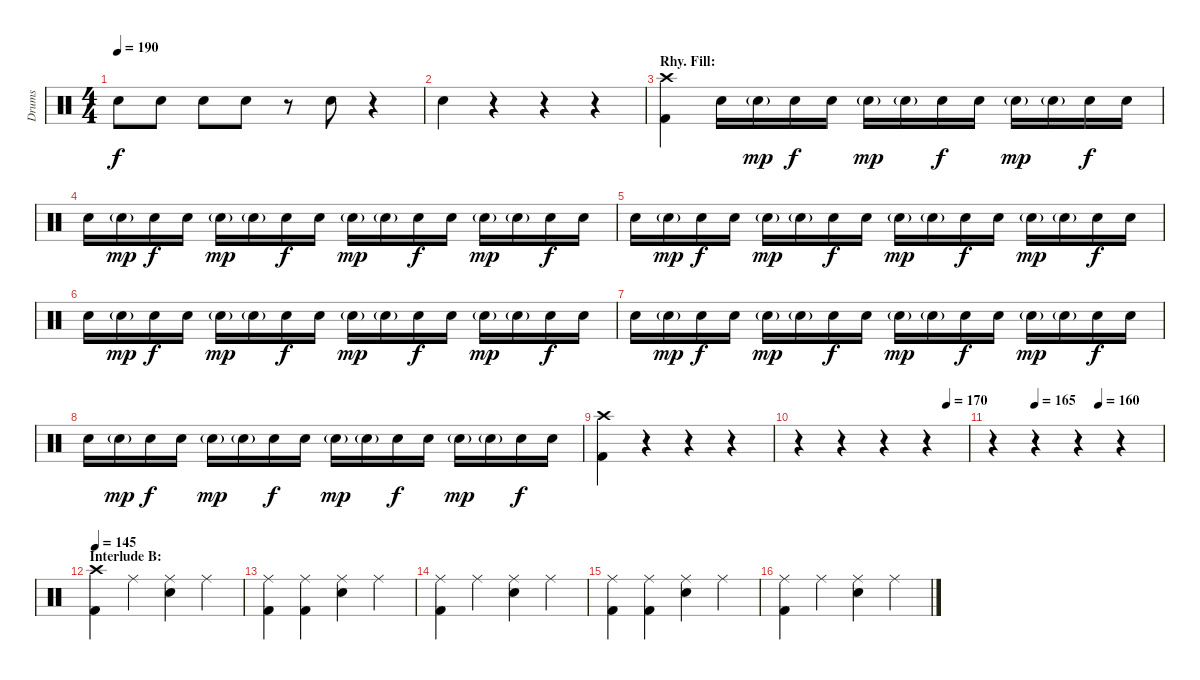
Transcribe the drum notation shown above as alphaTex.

\track ("Drums" "Drums") {instrument percussion}
\staff {score}
\articulation defaults
\ts (4 4)
\tempo 190
\clef neutral
\ks c "Electric Snare (hit)".8{dy f} "Electric Snare (hit)".8 "Electric Snare (hit)".8 "Electric Snare (hit)".8
r.8 "Electric Snare (hit)".8 r.4 |
"Electric Snare (hit)".4 r.4 r.4 r.4 |
\section ("" "Rhy. Fill:")
("Crash high (hit)" "Kick (hit) 2").4 "Electric Snare (hit)".16{volume 8} "Electric Snare (hit)"{g}.16{dy mp} "Electric Snare (hit)".16{dy f} "Electric Snare (hit)".16 "Electric Snare (hit)"{g}.16{dy mp} "Electric Snare (hit)"{g}.16 "Electric Snare (hit)".16{dy f} "Electric Snare (hit)".16 "Electric Snare (hit)"{g}.16{dy mp} "Electric Snare (hit)"{g}.16 "Electric Snare (hit)".16{dy f} "Electric Snare (hit)".16 |
"Electric Snare (hit)".16 "Electric Snare (hit)"{g}.16{dy mp} "Electric Snare (hit)".16{dy f} "Electric Snare (hit)".16 "Electric Snare (hit)"{g}.16{dy mp} "Electric Snare (hit)"{g}.16 "Electric Snare (hit)".16{dy f} "Electric Snare (hit)".16 "Electric Snare (hit)"{g}.16{dy mp} "Electric Snare (hit)"{g}.16 "Electric Snare (hit)".16{dy f} "Electric Snare (hit)".16 "Electric Snare (hit)"{g}.16{dy mp} "Electric Snare (hit)"{g}.16 "Electric Snare (hit)".16{dy f} "Electric Snare (hit)".16 |
"Electric Snare (hit)".16 "Electric Snare (hit)"{g}.16{dy mp} "Electric Snare (hit)".16{dy f} "Electric Snare (hit)".16 "Electric Snare (hit)"{g}.16{dy mp} "Electric Snare (hit)"{g}.16 "Electric Snare (hit)".16{dy f} "Electric Snare (hit)".16 "Electric Snare (hit)"{g}.16{dy mp} "Electric Snare (hit)"{g}.16 "Electric Snare (hit)".16{dy f} "Electric Snare (hit)".16 "Electric Snare (hit)"{g}.16{dy mp} "Electric Snare (hit)"{g}.16 "Electric Snare (hit)".16{dy f} "Electric Snare (hit)".16 |
"Electric Snare (hit)".16 "Electric Snare (hit)"{g}.16{dy mp} "Electric Snare (hit)".16{dy f} "Electric Snare (hit)".16 "Electric Snare (hit)"{g}.16{dy mp} "Electric Snare (hit)"{g}.16 "Electric Snare (hit)".16{dy f} "Electric Snare (hit)".16 "Electric Snare (hit)"{g}.16{dy mp} "Electric Snare (hit)"{g}.16 "Electric Snare (hit)".16{dy f} "Electric Snare (hit)".16 "Electric Snare (hit)"{g}.16{dy mp} "Electric Snare (hit)"{g}.16 "Electric Snare (hit)".16{dy f} "Electric Snare (hit)".16 |
"Electric Snare (hit)".16 "Electric Snare (hit)"{g}.16{dy mp} "Electric Snare (hit)".16{dy f} "Electric Snare (hit)".16 "Electric Snare (hit)"{g}.16{dy mp} "Electric Snare (hit)"{g}.16 "Electric Snare (hit)".16{dy f} "Electric Snare (hit)".16 "Electric Snare (hit)"{g}.16{dy mp} "Electric Snare (hit)"{g}.16 "Electric Snare (hit)".16{dy f} "Electric Snare (hit)".16 "Electric Snare (hit)"{g}.16{dy mp} "Electric Snare (hit)"{g}.16 "Electric Snare (hit)".16{dy f} "Electric Snare (hit)".16 |
"Electric Snare (hit)".16 "Electric Snare (hit)"{g}.16{dy mp} "Electric Snare (hit)".16{dy f} "Electric Snare (hit)".16 "Electric Snare (hit)"{g}.16{dy mp} "Electric Snare (hit)"{g}.16 "Electric Snare (hit)".16{dy f} "Electric Snare (hit)".16 "Electric Snare (hit)"{g}.16{dy mp} "Electric Snare (hit)"{g}.16 "Electric Snare (hit)".16{dy f} "Electric Snare (hit)".16 "Electric Snare (hit)"{g}.16{dy mp} "Electric Snare (hit)"{g}.16 "Electric Snare (hit)".16{dy f} "Electric Snare (hit)".16 |
("Crash high (hit)" "Kick (hit) 2").4{volume 16} r.4 r.4 r.4 |
\tempo (170 0.875)
r.4 r.4 r.4 r.4 |
\tempo (165 0.25)
\tempo (160 0.625)
r.4 r.4 r.4 r.4 |
\section ("" "Interlude B:")
\tempo 145
("Crash high (hit)" "Kick (hit) 2").4 "Ride (middle)".4 ("Ride (middle)" "Electric Snare (hit)").4 "Ride (middle)".4 |
("Ride (middle)" "Kick (hit) 2").4 ("Ride (middle)" "Kick (hit) 2").4 ("Ride (middle)" "Electric Snare (hit)").4 "Ride (middle)".4 |
("Ride (middle)" "Kick (hit) 2").4 "Ride (middle)".4 ("Ride (middle)" "Electric Snare (hit)").4 "Ride (middle)".4 |
("Ride (middle)" "Kick (hit) 2").4 ("Ride (middle)" "Kick (hit) 2").4 ("Ride (middle)" "Electric Snare (hit)").4 "Ride (middle)".4 |
("Ride (middle)" "Kick (hit) 2").4 "Ride (middle)".4 ("Ride (middle)" "Electric Snare (hit)").4 "Ride (middle)".4
